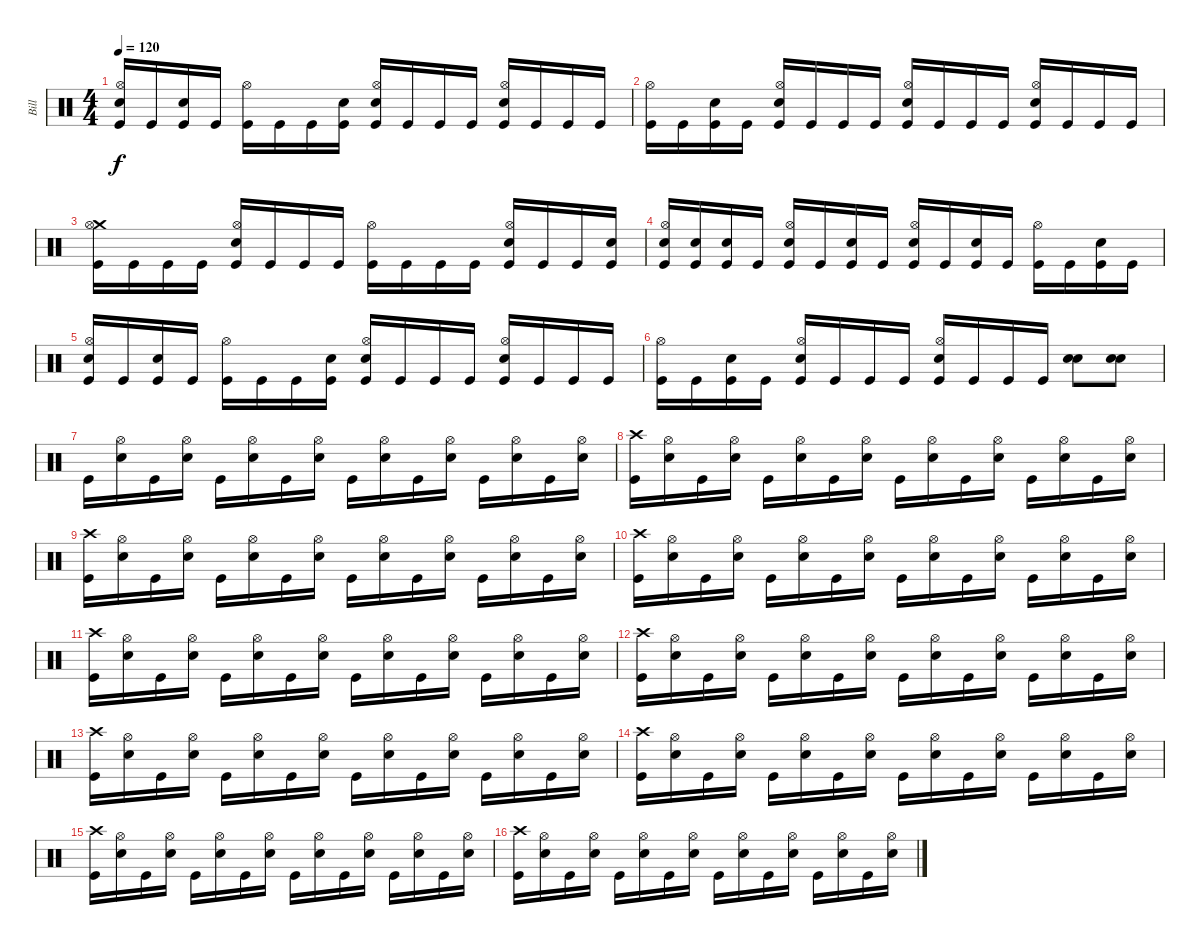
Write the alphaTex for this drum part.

\track ("Bill" "Bill") {instrument percussion}
\staff {score}
\articulation defaults
\ts (4 4)
\tempo 120
\clef neutral
\ks c
("Snare (hit) 2" "Hi-Hat (open)" "Kick (hit)").16{dy f} "Kick (hit)".16 ("Snare (hit) 2" "Kick (hit)").16 "Kick (hit)".16 ("Hi-Hat (open)" "Kick (hit)").16 "Kick (hit)".16 "Kick (hit)".16 ("Snare (hit) 2" "Kick (hit)").16 ("Snare (hit) 2" "Hi-Hat (open)" "Kick (hit)").16 "Kick (hit)".16 "Kick (hit)".16 "Kick (hit)".16 ("Snare (hit) 2" "Hi-Hat (open)" "Kick (hit)").16 "Kick (hit)".16 "Kick (hit)".16 "Kick (hit)".16 |
("Hi-Hat (open)" "Kick (hit)").16 "Kick (hit)".16 ("Snare (hit) 2" "Kick (hit)").16 "Kick (hit)".16 ("Snare (hit) 2" "Hi-Hat (open)" "Kick (hit)").16 "Kick (hit)".16 "Kick (hit)".16 "Kick (hit)".16 ("Snare (hit) 2" "Hi-Hat (open)" "Kick (hit)").16 "Kick (hit)".16 "Kick (hit)".16 "Kick (hit)".16 ("Snare (hit) 2" "Hi-Hat (open)" "Kick (hit)").16 "Kick (hit)".16 "Kick (hit)".16 "Kick (hit)".16 |
("Crash medium (hit)" "Hi-Hat (open)" "Kick (hit)").16 "Kick (hit)".16 "Kick (hit)".16 "Kick (hit)".16 ("Snare (hit) 2" "Hi-Hat (open)" "Kick (hit)").16 "Kick (hit)".16 "Kick (hit)".16 "Kick (hit)".16 ("Hi-Hat (open)" "Kick (hit)").16 "Kick (hit)".16 "Kick (hit)".16 "Kick (hit)".16 ("Snare (hit) 2" "Hi-Hat (open)" "Kick (hit)").16 "Kick (hit)".16 "Kick (hit)".16 ("Snare (hit) 2" "Kick (hit)").16 |
("Snare (hit) 2" "Hi-Hat (open)" "Kick (hit)").16 ("Snare (hit) 2" "Kick (hit)").16 ("Snare (hit) 2" "Kick (hit)").16 "Kick (hit)".16 ("Snare (hit) 2" "Hi-Hat (open)" "Kick (hit)").16 "Kick (hit)".16 ("Snare (hit) 2" "Kick (hit)").16 "Kick (hit)".16 ("Snare (hit) 2" "Hi-Hat (open)" "Kick (hit)").16 "Kick (hit)".16 ("Snare (hit) 2" "Kick (hit)").16 "Kick (hit)".16 ("Hi-Hat (open)" "Kick (hit)").16 "Kick (hit)".16 ("Snare (hit) 2" "Kick (hit)").16 "Kick (hit)".16 |
("Snare (hit) 2" "Hi-Hat (open)" "Kick (hit)").16 "Kick (hit)".16 ("Snare (hit) 2" "Kick (hit)").16 "Kick (hit)".16 ("Hi-Hat (open)" "Kick (hit)").16 "Kick (hit)".16 "Kick (hit)".16 ("Snare (hit) 2" "Kick (hit)").16 ("Snare (hit) 2" "Hi-Hat (open)" "Kick (hit)").16 "Kick (hit)".16 "Kick (hit)".16 "Kick (hit)".16 ("Snare (hit) 2" "Hi-Hat (open)" "Kick (hit)").16 "Kick (hit)".16 "Kick (hit)".16 "Kick (hit)".16 |
("Hi-Hat (open)" "Kick (hit)").16 "Kick (hit)".16 ("Snare (hit) 2" "Kick (hit)").16 "Kick (hit)".16 ("Snare (hit) 2" "Hi-Hat (open)" "Kick (hit)").16 "Kick (hit)".16 "Kick (hit)".16 "Kick (hit)".16 ("Snare (hit) 2" "Hi-Hat (open)" "Kick (hit)").16 "Kick (hit)".16 "Kick (hit)".16 "Kick (hit)".16 ("Snare (hit) 2" "Snare (hit) 2").8 ("Snare (hit) 2" "Snare (hit) 2").8 |
"Kick (hit)".16 ("Hi-Hat (open)" "Snare (hit) 2").16 "Kick (hit)".16 ("Hi-Hat (open)" "Snare (hit) 2").16 "Kick (hit)".16 ("Hi-Hat (open)" "Snare (hit) 2").16 "Kick (hit)".16 ("Hi-Hat (open)" "Snare (hit) 2").16 "Kick (hit)".16 ("Hi-Hat (open)" "Snare (hit) 2").16 "Kick (hit)".16 ("Hi-Hat (open)" "Snare (hit) 2").16 "Kick (hit)".16 ("Hi-Hat (open)" "Snare (hit) 2").16 "Kick (hit)".16 ("Hi-Hat (open)" "Snare (hit) 2").16 |
("Crash high (hit)" "Kick (hit)").16 ("Hi-Hat (open)" "Snare (hit) 2").16 "Kick (hit)".16 ("Hi-Hat (open)" "Snare (hit) 2").16 "Kick (hit)".16 ("Hi-Hat (open)" "Snare (hit) 2").16 "Kick (hit)".16 ("Hi-Hat (open)" "Snare (hit) 2").16 "Kick (hit)".16 ("Hi-Hat (open)" "Snare (hit) 2").16 "Kick (hit)".16 ("Hi-Hat (open)" "Snare (hit) 2").16 "Kick (hit)".16 ("Hi-Hat (open)" "Snare (hit) 2").16 "Kick (hit)".16 ("Hi-Hat (open)" "Snare (hit) 2").16 |
("Crash high (hit)" "Kick (hit)").16 ("Hi-Hat (open)" "Snare (hit) 2").16 "Kick (hit)".16 ("Hi-Hat (open)" "Snare (hit) 2").16 "Kick (hit)".16 ("Hi-Hat (open)" "Snare (hit) 2").16 "Kick (hit)".16 ("Hi-Hat (open)" "Snare (hit) 2").16 "Kick (hit)".16 ("Hi-Hat (open)" "Snare (hit) 2").16 "Kick (hit)".16 ("Hi-Hat (open)" "Snare (hit) 2").16 "Kick (hit)".16 ("Hi-Hat (open)" "Snare (hit) 2").16 "Kick (hit)".16 ("Hi-Hat (open)" "Snare (hit) 2").16 |
("Crash high (hit)" "Kick (hit)").16 ("Hi-Hat (open)" "Snare (hit) 2").16 "Kick (hit)".16 ("Hi-Hat (open)" "Snare (hit) 2").16 "Kick (hit)".16 ("Hi-Hat (open)" "Snare (hit) 2").16 "Kick (hit)".16 ("Hi-Hat (open)" "Snare (hit) 2").16 "Kick (hit)".16 ("Hi-Hat (open)" "Snare (hit) 2").16 "Kick (hit)".16 ("Hi-Hat (open)" "Snare (hit) 2").16 "Kick (hit)".16 ("Hi-Hat (open)" "Snare (hit) 2").16 "Kick (hit)".16 ("Hi-Hat (open)" "Snare (hit) 2").16 |
("Crash high (hit)" "Kick (hit)").16 ("Hi-Hat (open)" "Snare (hit) 2").16 "Kick (hit)".16 ("Hi-Hat (open)" "Snare (hit) 2").16 "Kick (hit)".16 ("Hi-Hat (open)" "Snare (hit) 2").16 "Kick (hit)".16 ("Hi-Hat (open)" "Snare (hit) 2").16 "Kick (hit)".16 ("Hi-Hat (open)" "Snare (hit) 2").16 "Kick (hit)".16 ("Hi-Hat (open)" "Snare (hit) 2").16 "Kick (hit)".16 ("Hi-Hat (open)" "Snare (hit) 2").16 "Kick (hit)".16 ("Hi-Hat (open)" "Snare (hit) 2").16 |
("Crash high (hit)" "Kick (hit)").16 ("Hi-Hat (open)" "Snare (hit) 2").16 "Kick (hit)".16 ("Hi-Hat (open)" "Snare (hit) 2").16 "Kick (hit)".16 ("Hi-Hat (open)" "Snare (hit) 2").16 "Kick (hit)".16 ("Hi-Hat (open)" "Snare (hit) 2").16 "Kick (hit)".16 ("Hi-Hat (open)" "Snare (hit) 2").16 "Kick (hit)".16 ("Hi-Hat (open)" "Snare (hit) 2").16 "Kick (hit)".16 ("Hi-Hat (open)" "Snare (hit) 2").16 "Kick (hit)".16 ("Hi-Hat (open)" "Snare (hit) 2").16 |
("Crash high (hit)" "Kick (hit)").16 ("Hi-Hat (open)" "Snare (hit) 2").16 "Kick (hit)".16 ("Hi-Hat (open)" "Snare (hit) 2").16 "Kick (hit)".16 ("Hi-Hat (open)" "Snare (hit) 2").16 "Kick (hit)".16 ("Hi-Hat (open)" "Snare (hit) 2").16 "Kick (hit)".16 ("Hi-Hat (open)" "Snare (hit) 2").16 "Kick (hit)".16 ("Hi-Hat (open)" "Snare (hit) 2").16 "Kick (hit)".16 ("Hi-Hat (open)" "Snare (hit) 2").16 "Kick (hit)".16 ("Hi-Hat (open)" "Snare (hit) 2").16 |
("Crash high (hit)" "Kick (hit)").16 ("Hi-Hat (open)" "Snare (hit) 2").16 "Kick (hit)".16 ("Hi-Hat (open)" "Snare (hit) 2").16 "Kick (hit)".16 ("Hi-Hat (open)" "Snare (hit) 2").16 "Kick (hit)".16 ("Hi-Hat (open)" "Snare (hit) 2").16 "Kick (hit)".16 ("Hi-Hat (open)" "Snare (hit) 2").16 "Kick (hit)".16 ("Hi-Hat (open)" "Snare (hit) 2").16 "Kick (hit)".16 ("Hi-Hat (open)" "Snare (hit) 2").16 "Kick (hit)".16 ("Hi-Hat (open)" "Snare (hit) 2").16 |
("Crash high (hit)" "Kick (hit)").16 ("Hi-Hat (open)" "Snare (hit) 2").16 "Kick (hit)".16 ("Hi-Hat (open)" "Snare (hit) 2").16 "Kick (hit)".16 ("Hi-Hat (open)" "Snare (hit) 2").16 "Kick (hit)".16 ("Hi-Hat (open)" "Snare (hit) 2").16 "Kick (hit)".16 ("Hi-Hat (open)" "Snare (hit) 2").16 "Kick (hit)".16 ("Hi-Hat (open)" "Snare (hit) 2").16 "Kick (hit)".16 ("Hi-Hat (open)" "Snare (hit) 2").16 "Kick (hit)".16 ("Hi-Hat (open)" "Snare (hit) 2").16 |
("Crash high (hit)" "Kick (hit)").16 ("Hi-Hat (open)" "Snare (hit) 2").16 "Kick (hit)".16 ("Hi-Hat (open)" "Snare (hit) 2").16 "Kick (hit)".16 ("Hi-Hat (open)" "Snare (hit) 2").16 "Kick (hit)".16 ("Hi-Hat (open)" "Snare (hit) 2").16 "Kick (hit)".16 ("Hi-Hat (open)" "Snare (hit) 2").16 "Kick (hit)".16 ("Hi-Hat (open)" "Snare (hit) 2").16 "Kick (hit)".16 ("Hi-Hat (open)" "Snare (hit) 2").16 "Kick (hit)".16 ("Hi-Hat (open)" "Snare (hit) 2").16
